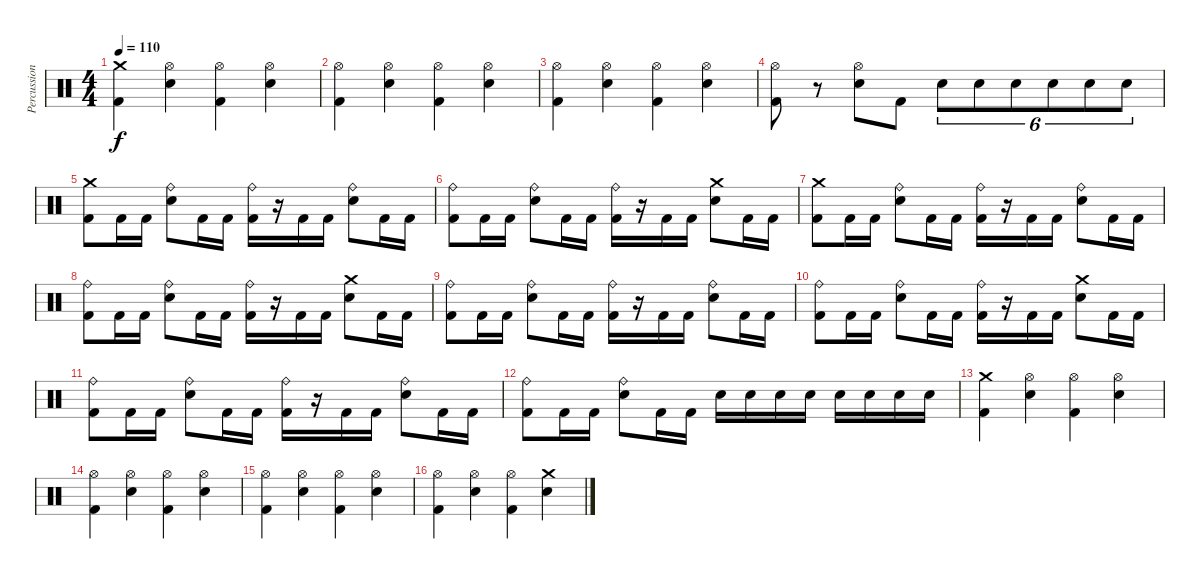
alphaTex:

\track ("Percussion" "Percussion") {instrument percussion}
\staff {score}
\articulation defaults
\ts (4 4)
\tempo 110
\clef neutral
\ks c
("Crash medium (hit)" "Kick (hit) 2").4{dy f} ("Hi-Hat (open)" "Snare (hit) 2").4 ("Hi-Hat (open)" "Kick (hit) 2").4 ("Hi-Hat (open)" "Snare (hit) 2").4 |
("Hi-Hat (open)" "Kick (hit) 2").4 ("Hi-Hat (open)" "Snare (hit) 2").4 ("Hi-Hat (open)" "Kick (hit) 2").4 ("Hi-Hat (open)" "Snare (hit) 2").4 |
("Hi-Hat (open)" "Kick (hit) 2").4 ("Hi-Hat (open)" "Snare (hit) 2").4 ("Hi-Hat (open)" "Kick (hit) 2").4 ("Hi-Hat (open)" "Snare (hit) 2").4 |
("Hi-Hat (open)" "Kick (hit) 2").8 r.8 ("Hi-Hat (open)" "Snare (hit) 2").8 "Kick (hit) 2".8 "Snare (hit) 2".8{tu (6 4)} "Snare (hit) 2".8{tu (6 4)} "Snare (hit) 2".8{tu (6 4)} "Snare (hit) 2".8{tu (6 4)} "Snare (hit) 2".8{tu (6 4)} "Snare (hit) 2".8{tu (6 4)} |
("Crash medium (hit)" "Kick (hit) 2").8 "Kick (hit) 2".16 "Kick (hit) 2".16 ("Ride (bell)" "Snare (hit) 2").8 "Kick (hit) 2".16 "Kick (hit) 2".16 ("Ride (bell)" "Kick (hit) 2").16 r.16 "Kick (hit) 2".16 "Kick (hit) 2".16 ("Ride (bell)" "Snare (hit) 2").8 "Kick (hit) 2".16 "Kick (hit) 2".16 |
("Ride (bell)" "Kick (hit) 2").8 "Kick (hit) 2".16 "Kick (hit) 2".16 ("Ride (bell)" "Snare (hit) 2").8 "Kick (hit) 2".16 "Kick (hit) 2".16 ("Ride (bell)" "Kick (hit) 2").16 r.16 "Kick (hit) 2".16 "Kick (hit) 2".16 ("Crash medium (hit)" "Snare (hit) 2").8 "Kick (hit) 2".16 "Kick (hit) 2".16 |
("Crash medium (hit)" "Kick (hit) 2").8 "Kick (hit) 2".16 "Kick (hit) 2".16 ("Ride (bell)" "Snare (hit) 2").8 "Kick (hit) 2".16 "Kick (hit) 2".16 ("Ride (bell)" "Kick (hit) 2").16 r.16 "Kick (hit) 2".16 "Kick (hit) 2".16 ("Ride (bell)" "Snare (hit) 2").8 "Kick (hit) 2".16 "Kick (hit) 2".16 |
("Ride (bell)" "Kick (hit) 2").8 "Kick (hit) 2".16 "Kick (hit) 2".16 ("Ride (bell)" "Snare (hit) 2").8 "Kick (hit) 2".16 "Kick (hit) 2".16 ("Ride (bell)" "Kick (hit) 2").16 r.16 "Kick (hit) 2".16 "Kick (hit) 2".16 ("Crash medium (hit)" "Snare (hit) 2").8 "Kick (hit) 2".16 "Kick (hit) 2".16 |
("Ride (bell)" "Kick (hit) 2").8 "Kick (hit) 2".16 "Kick (hit) 2".16 ("Ride (bell)" "Snare (hit) 2").8 "Kick (hit) 2".16 "Kick (hit) 2".16 ("Ride (bell)" "Kick (hit) 2").16 r.16 "Kick (hit) 2".16 "Kick (hit) 2".16 ("Ride (bell)" "Snare (hit) 2").8 "Kick (hit) 2".16 "Kick (hit) 2".16 |
("Ride (bell)" "Kick (hit) 2").8 "Kick (hit) 2".16 "Kick (hit) 2".16 ("Ride (bell)" "Snare (hit) 2").8 "Kick (hit) 2".16 "Kick (hit) 2".16 ("Ride (bell)" "Kick (hit) 2").16 r.16 "Kick (hit) 2".16 "Kick (hit) 2".16 ("Crash medium (hit)" "Snare (hit) 2").8 "Kick (hit) 2".16 "Kick (hit) 2".16 |
("Ride (bell)" "Kick (hit) 2").8 "Kick (hit) 2".16 "Kick (hit) 2".16 ("Ride (bell)" "Snare (hit) 2").8 "Kick (hit) 2".16 "Kick (hit) 2".16 ("Ride (bell)" "Kick (hit) 2").16 r.16 "Kick (hit) 2".16 "Kick (hit) 2".16 ("Ride (bell)" "Snare (hit) 2").8 "Kick (hit) 2".16 "Kick (hit) 2".16 |
("Ride (bell)" "Kick (hit) 2").8 "Kick (hit) 2".16 "Kick (hit) 2".16 ("Ride (bell)" "Snare (hit) 2").8 "Kick (hit) 2".16 "Kick (hit) 2".16 "Snare (hit) 2".16 "Snare (hit) 2".16 "Snare (hit) 2".16 "Snare (hit) 2".16 "Snare (hit) 2".16 "Snare (hit) 2".16 "Snare (hit) 2".16 "Snare (hit) 2".16 |
("Crash medium (hit)" "Kick (hit) 2").4 ("Hi-Hat (open)" "Snare (hit) 2").4 ("Hi-Hat (open)" "Kick (hit) 2").4 ("Hi-Hat (open)" "Snare (hit) 2").4 |
("Hi-Hat (open)" "Kick (hit) 2").4 ("Hi-Hat (open)" "Snare (hit) 2").4 ("Hi-Hat (open)" "Kick (hit) 2").4 ("Hi-Hat (open)" "Snare (hit) 2").4 |
("Hi-Hat (open)" "Kick (hit) 2").4 ("Hi-Hat (open)" "Snare (hit) 2").4 ("Hi-Hat (open)" "Kick (hit) 2").4 ("Hi-Hat (open)" "Snare (hit) 2").4 |
("Hi-Hat (open)" "Kick (hit) 2").4 ("Hi-Hat (open)" "Snare (hit) 2").4 ("Hi-Hat (open)" "Kick (hit) 2").4 ("Crash medium (hit)" "Snare (hit) 2").4
